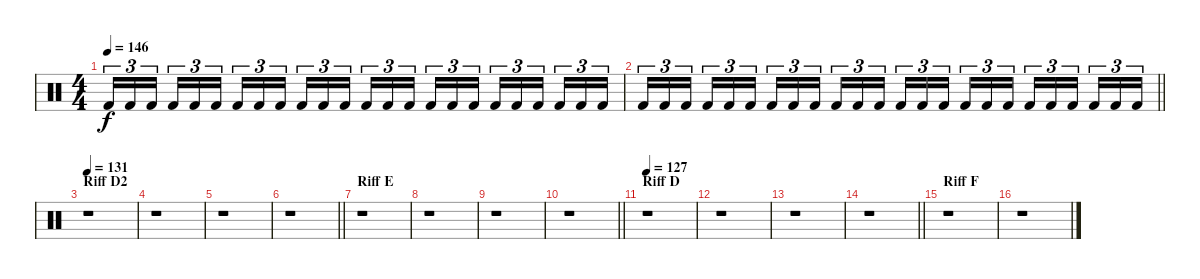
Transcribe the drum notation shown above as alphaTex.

\track "" {instrument percussion}
\staff {score}
\articulation defaults
\ts (4 4)
\tempo 146
\clef neutral
\ks c "Kick (hit) 2".16{tu (3 2) dy f} "Kick (hit) 2".16{tu (3 2)} "Kick (hit) 2".16{tu (3 2) beam splitsecondary} "Kick (hit) 2".16{tu (3 2)} "Kick (hit) 2".16{tu (3 2)} "Kick (hit) 2".16{tu (3 2)} "Kick (hit) 2".16{tu (3 2)} "Kick (hit) 2".16{tu (3 2)} "Kick (hit) 2".16{tu (3 2) beam splitsecondary} "Kick (hit) 2".16{tu (3 2)} "Kick (hit) 2".16{tu (3 2)} "Kick (hit) 2".16{tu (3 2)} "Kick (hit) 2".16{tu (3 2)} "Kick (hit) 2".16{tu (3 2)} "Kick (hit) 2".16{tu (3 2) beam splitsecondary} "Kick (hit) 2".16{tu (3 2)} "Kick (hit) 2".16{tu (3 2)} "Kick (hit) 2".16{tu (3 2)} "Kick (hit) 2".16{tu (3 2)} "Kick (hit) 2".16{tu (3 2)} "Kick (hit) 2".16{tu (3 2) beam splitsecondary} "Kick (hit) 2".16{tu (3 2)} "Kick (hit) 2".16{tu (3 2)} "Kick (hit) 2".16{tu (3 2)}
|
\barLineRight lightlight "Kick (hit) 2".16{tu (3 2)} "Kick (hit) 2".16{tu (3 2)} "Kick (hit) 2".16{tu (3 2) beam splitsecondary} "Kick (hit) 2".16{tu (3 2)} "Kick (hit) 2".16{tu (3 2)} "Kick (hit) 2".16{tu (3 2)} "Kick (hit) 2".16{tu (3 2)} "Kick (hit) 2".16{tu (3 2)} "Kick (hit) 2".16{tu (3 2) beam splitsecondary} "Kick (hit) 2".16{tu (3 2)} "Kick (hit) 2".16{tu (3 2)} "Kick (hit) 2".16{tu (3 2)} "Kick (hit) 2".16{tu (3 2)} "Kick (hit) 2".16{tu (3 2)} "Kick (hit) 2".16{tu (3 2) beam splitsecondary} "Kick (hit) 2".16{tu (3 2)} "Kick (hit) 2".16{tu (3 2)} "Kick (hit) 2".16{tu (3 2)} "Kick (hit) 2".16{tu (3 2)} "Kick (hit) 2".16{tu (3 2)} "Kick (hit) 2".16{tu (3 2) beam splitsecondary} "Kick (hit) 2".16{tu (3 2)} "Kick (hit) 2".16{tu (3 2)} "Kick (hit) 2".16{tu (3 2)}
|
\section ("" "Riff D2")
\tempo 131
r.1 |
r.1 |
r.1 |
\barLineRight lightlight
r.1 |
\section ("" "Riff E")
r.1 |
r.1 |
r.1 |
\barLineRight lightlight
r.1 |
\section ("" "Riff D")
\tempo 127
r.1 |
r.1 |
r.1 |
\barLineRight lightlight
r.1 |
\section ("" "Riff F")
r.1 |
r.1
